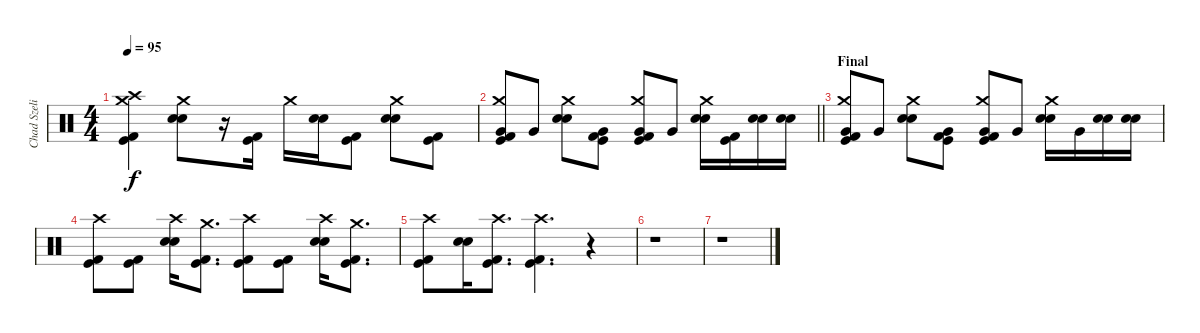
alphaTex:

\track ("Chad Szeliga" "Chad Szeli") {instrument percussion}
\staff {score}
\articulation defaults
\ts (4 4)
\tempo 95
\clef neutral
\ks c
("Crash high (hit)" "Kick (hit) 2" "Kick (hit)" "Crash medium (hit)").4{dy f} ("Crash medium (hit)" "Snare (hit) 2" "Snare (hit) 2").8 r.16 ("Kick (hit) 2" "Kick (hit)").16{beam Down} "Crash medium (hit)".16 ("Snare (hit) 2" "Snare (hit) 2").16 ("Kick (hit) 2" "Kick (hit)").8 ("Crash medium (hit)" "Snare (hit) 2" "Snare (hit) 2").8 ("Kick (hit) 2" "Kick (hit)").8 |
\barLineRight lightlight
("Crash medium (hit)" "Kick (hit) 2" "Kick (hit)" "Very Low Tom (hit)").8 "Very Low Tom (hit)".8 ("Crash medium (hit)" "Snare (hit) 2" "Snare (hit) 2").8 ("Kick (hit) 2" "Kick (hit)" "Very Low Tom (hit)").8 ("Crash medium (hit)" "Kick (hit) 2" "Kick (hit)" "Very Low Tom (hit)").8 "Very Low Tom (hit)".8 ("Crash medium (hit)" "Snare (hit) 2" "Snare (hit) 2").16 ("Kick (hit) 2" "Kick (hit)").16 ("Snare (hit) 2" "Snare (hit) 2").16 ("Snare (hit) 2" "Snare (hit) 2").16 |
\section ("" "Final")
("Crash medium (hit)" "Kick (hit) 2" "Kick (hit)" "Very Low Tom (hit)").8 "Very Low Tom (hit)".8 ("Crash medium (hit)" "Snare (hit) 2" "Snare (hit) 2").8 ("Kick (hit) 2" "Kick (hit)" "Very Low Tom (hit)").8 ("Crash medium (hit)" "Kick (hit) 2" "Kick (hit)" "Very Low Tom (hit)").8 "Very Low Tom (hit)".8 ("Crash medium (hit)" "Snare (hit) 2" "Snare (hit) 2").16 "Very Low Tom (hit)".16 ("Snare (hit) 2" "Snare (hit) 2").16 ("Snare (hit) 2" "Snare (hit) 2").16 |
("Crash high (hit)" "Kick (hit) 2" "Kick (hit)").8 ("Kick (hit) 2" "Kick (hit)").8 ("Crash high (hit)" "Snare (hit) 2" "Snare (hit) 2").16 ("Crash medium (hit)" "Kick (hit) 2" "Kick (hit)").8{d} ("Crash high (hit)" "Kick (hit) 2" "Kick (hit)").8 ("Kick (hit) 2" "Kick (hit)").8 ("Crash high (hit)" "Snare (hit) 2" "Snare (hit) 2").16 ("Crash medium (hit)" "Kick (hit) 2" "Kick (hit)").8{d} |
("Crash high (hit)" "Kick (hit) 2" "Kick (hit)").8 ("Snare (hit) 2" "Snare (hit) 2").16 ("Crash high (hit)" "Kick (hit) 2" "Kick (hit)").8{d} ("Crash high (hit)" "Kick (hit) 2" "Kick (hit)").4{d} r.4 |
r.1 |
r.1
